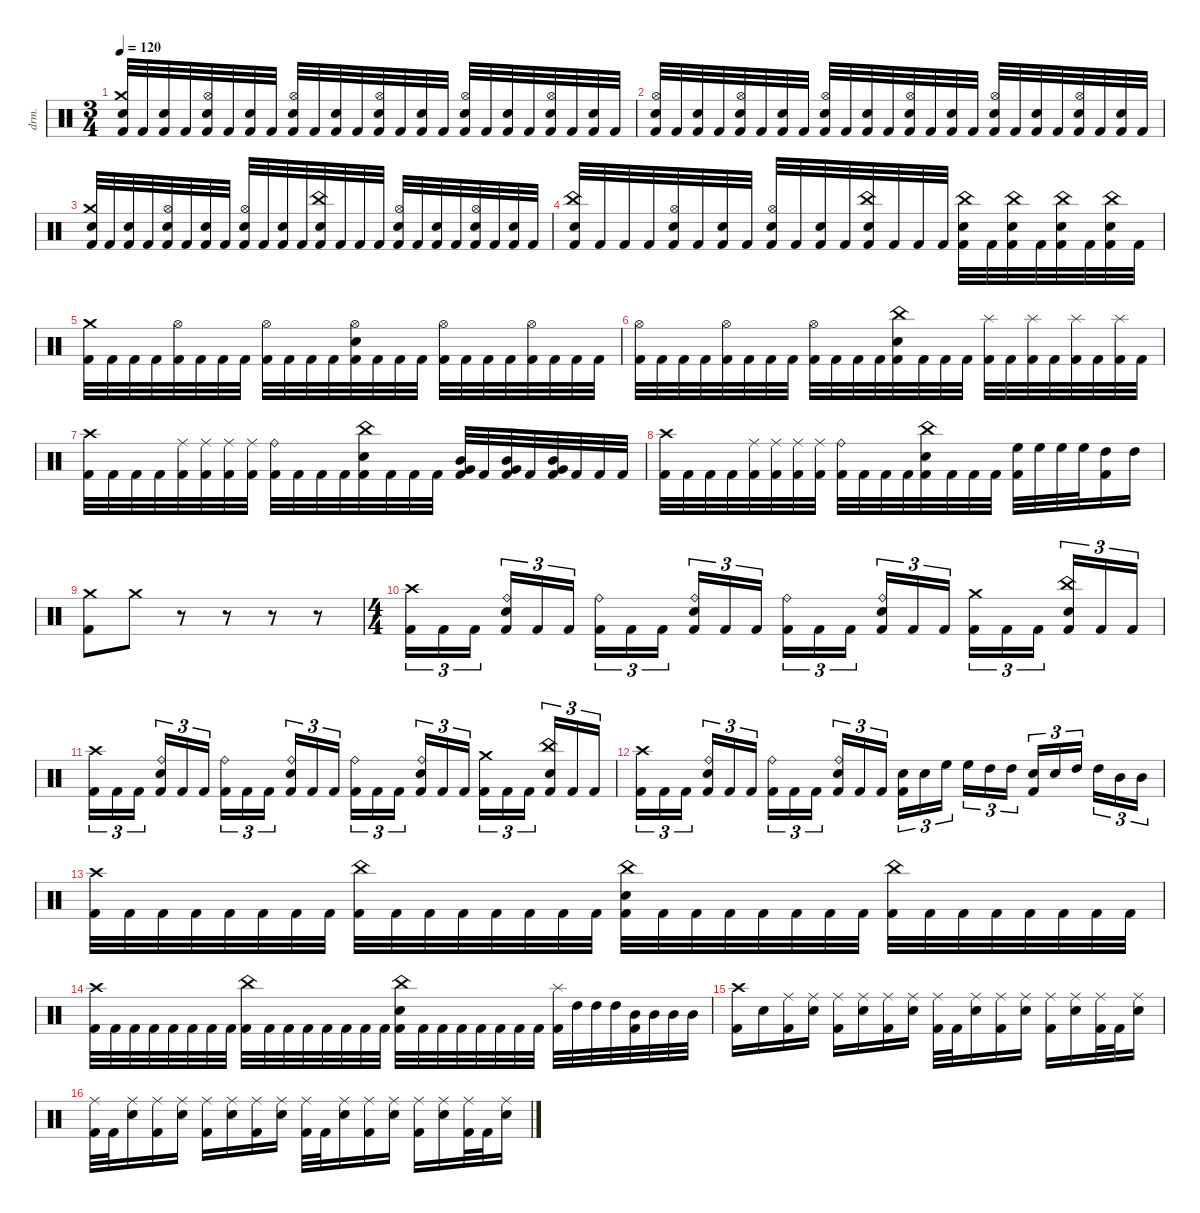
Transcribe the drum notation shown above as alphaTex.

\defaultSystemsLayout 4
\hideDynamics
\bracketExtendMode nobrackets
\otherSystemsTrackNameOrientation horizontal
\track ("Percussion" "drm.") {instrument percussion}
\staff {score}
\articulation defaults
\ts (3 4)
\tempo 120
\clef neutral
\ks c
("Kick (hit) 2" "Snare (hit) 2" "Crash medium (hit)").32{dy fff beam Up} "Kick (hit) 2".32{beam Up} ("Kick (hit) 2" "Snare (hit) 2").32{beam Up} "Kick (hit) 2".32{beam Up} ("Kick (hit) 2" "Snare (hit) 2" "Hi-Hat (open)").32{beam Up} "Kick (hit) 2".32{beam Up} ("Kick (hit) 2" "Snare (hit) 2").32{beam Up} "Kick (hit) 2".32{beam Up} ("Kick (hit) 2" "Snare (hit) 2" "Hi-Hat (open)").32{beam Up} "Kick (hit) 2".32{beam Up} ("Kick (hit) 2" "Snare (hit) 2").32{beam Up} "Kick (hit) 2".32{beam Up} ("Kick (hit) 2" "Snare (hit) 2" "Hi-Hat (open)").32{beam Up} "Kick (hit) 2".32{beam Up} ("Kick (hit) 2" "Snare (hit) 2").32{beam Up} "Kick (hit) 2".32{beam Up} ("Kick (hit) 2" "Snare (hit) 2" "Hi-Hat (open)").32{beam Up} "Kick (hit) 2".32{beam Up} ("Kick (hit) 2" "Snare (hit) 2").32{beam Up} "Kick (hit) 2".32{beam Up} ("Kick (hit) 2" "Snare (hit) 2" "Hi-Hat (open)").32{beam Up} "Kick (hit) 2".32{beam Up} ("Kick (hit) 2" "Snare (hit) 2").32{beam Up} "Kick (hit) 2".32{beam Up} |
("Kick (hit) 2" "Snare (hit) 2" "Hi-Hat (open)").32{beam Up} "Kick (hit) 2".32{beam Up} ("Kick (hit) 2" "Snare (hit) 2").32{beam Up} "Kick (hit) 2".32{beam Up} ("Kick (hit) 2" "Snare (hit) 2" "Hi-Hat (open)").32{beam Up} "Kick (hit) 2".32{beam Up} ("Kick (hit) 2" "Snare (hit) 2").32{beam Up} "Kick (hit) 2".32{beam Up} ("Kick (hit) 2" "Snare (hit) 2" "Hi-Hat (open)").32{beam Up} "Kick (hit) 2".32{beam Up} ("Kick (hit) 2" "Snare (hit) 2").32{beam Up} "Kick (hit) 2".32{beam Up} ("Kick (hit) 2" "Snare (hit) 2" "Hi-Hat (open)").32{beam Up} "Kick (hit) 2".32{beam Up} ("Kick (hit) 2" "Snare (hit) 2").32{beam Up} "Kick (hit) 2".32{beam Up} ("Kick (hit) 2" "Snare (hit) 2" "Hi-Hat (open)").32{beam Up} "Kick (hit) 2".32{beam Up} ("Kick (hit) 2" "Snare (hit) 2").32{beam Up} "Kick (hit) 2".32{beam Up} ("Kick (hit) 2" "Snare (hit) 2" "Hi-Hat (open)").32{beam Up} "Kick (hit) 2".32{beam Up} ("Kick (hit) 2" "Snare (hit) 2").32{beam Up} "Kick (hit) 2".32{beam Up} |
("Kick (hit) 2" "Snare (hit) 2" "Crash medium (hit)").32{beam Up} "Kick (hit) 2".32{beam Up} ("Kick (hit) 2" "Snare (hit) 2").32{beam Up} "Kick (hit) 2".32{beam Up} ("Kick (hit) 2" "Snare (hit) 2" "Hi-Hat (open)").32{beam Up} "Kick (hit) 2".32{beam Up} ("Kick (hit) 2" "Snare (hit) 2").32{beam Up} "Kick (hit) 2".32{beam Up} ("Kick (hit) 2" "Snare (hit) 2" "Hi-Hat (open)").32{beam Up} "Kick (hit) 2".32{beam Up} ("Kick (hit) 2" "Snare (hit) 2").32{beam Up} "Kick (hit) 2".32{beam Up} ("Kick (hit) 2" "Snare (hit) 2" "China (hit)").32{beam Up} "Kick (hit) 2".32{beam Up} "Kick (hit) 2".32{beam Up} "Kick (hit) 2".32{beam Up} ("Kick (hit) 2" "Snare (hit) 2" "Hi-Hat (open)").32{beam Up} "Kick (hit) 2".32{beam Up} ("Kick (hit) 2" "Snare (hit) 2").32{beam Up} "Kick (hit) 2".32{beam Up} ("Kick (hit) 2" "Snare (hit) 2" "Hi-Hat (open)").32{beam Up} "Kick (hit) 2".32{beam Up} ("Kick (hit) 2" "Snare (hit) 2").32{beam Up} "Kick (hit) 2".32{beam Up} |
("Kick (hit) 2" "Snare (hit) 2" "China (hit)").32{beam Up} "Kick (hit) 2".32{beam Up} "Kick (hit) 2".32{beam Up} "Kick (hit) 2".32{beam Up} ("Kick (hit) 2" "Snare (hit) 2" "Hi-Hat (open)").32{beam Up} "Kick (hit) 2".32{beam Up} ("Kick (hit) 2" "Snare (hit) 2").32{beam Up} "Kick (hit) 2".32{beam Up} ("Kick (hit) 2" "Snare (hit) 2" "Hi-Hat (open)").32{beam Up} "Kick (hit) 2".32{beam Up} ("Kick (hit) 2" "Snare (hit) 2").32{beam Up} "Kick (hit) 2".32{beam Up} ("Kick (hit) 2" "Snare (hit) 2" "China (hit)").32{beam Up} "Kick (hit) 2".32{beam Up} "Kick (hit) 2".32{beam Up} "Kick (hit) 2".32{beam Up} ("Kick (hit) 2" "Snare (hit) 2" "China (hit)").32{beam Down} "Kick (hit) 2".32{beam Down} ("Kick (hit) 2" "Snare (hit) 2" "China (hit)").32{beam Down} "Kick (hit) 2".32{beam Down} ("Kick (hit) 2" "Snare (hit) 2" "China (hit)").32{beam Down} "Kick (hit) 2".32{beam Down} ("Kick (hit) 2" "Snare (hit) 2" "China (hit)").32{beam Down} "Kick (hit) 2".32{beam Down} |
("Kick (hit) 2" "Crash medium (hit)").32{beam Down} "Kick (hit) 2".32{beam Down} "Kick (hit) 2".32{beam Down} "Kick (hit) 2".32{beam Down} ("Kick (hit) 2" "Hi-Hat (open)").32{beam Down} "Kick (hit) 2".32{beam Down} "Kick (hit) 2".32{beam Down} "Kick (hit) 2".32{beam Down} ("Kick (hit) 2" "Hi-Hat (open)").32{beam Down} "Kick (hit) 2".32{beam Down} "Kick (hit) 2".32{beam Down} "Kick (hit) 2".32{beam Down} ("Kick (hit) 2" "Snare (hit) 2" "Hi-Hat (open)").32{beam Down} "Kick (hit) 2".32{beam Down} "Kick (hit) 2".32{beam Down} "Kick (hit) 2".32{beam Down} ("Kick (hit) 2" "Hi-Hat (open)").32{beam Down} "Kick (hit) 2".32{beam Down} "Kick (hit) 2".32{beam Down} "Kick (hit) 2".32{beam Down} ("Kick (hit) 2" "Hi-Hat (open)").32{beam Down} "Kick (hit) 2".32{beam Down} "Kick (hit) 2".32{beam Down} "Kick (hit) 2".32{beam Down} |
("Kick (hit) 2" "Hi-Hat (open)").32{beam Down} "Kick (hit) 2".32{beam Down} "Kick (hit) 2".32{beam Down} "Kick (hit) 2".32{beam Down} ("Kick (hit) 2" "Hi-Hat (open)").32{beam Down} "Kick (hit) 2".32{beam Down} "Kick (hit) 2".32{beam Down} "Kick (hit) 2".32{beam Down} ("Kick (hit) 2" "Hi-Hat (open)").32{beam Down} "Kick (hit) 2".32{beam Down} "Kick (hit) 2".32{beam Down} "Kick (hit) 2".32{beam Down} ("Kick (hit) 2" "Snare (hit) 2" "China (hit)").32{beam Down} "Kick (hit) 2".32{beam Down} "Kick (hit) 2".32{beam Down} "Kick (hit) 2".32{beam Down} ("Kick (hit) 2" "Splash (hit)").32{beam Down} "Kick (hit) 2".32{beam Down} ("Kick (hit) 2" "Splash (hit)").32{beam Down} "Kick (hit) 2".32{beam Down} ("Kick (hit) 2" "Splash (hit)").32{beam Down} "Kick (hit) 2".32{beam Down} ("Kick (hit) 2" "Splash (hit)").32{beam Down} "Kick (hit) 2".32{beam Down} |
("Kick (hit) 2" "Crash high (hit)").32{beam Down} "Kick (hit) 2".32{beam Down} "Kick (hit) 2".32{beam Down} "Kick (hit) 2".32{beam Down} ("Kick (hit) 2" "Ride (middle)").32{beam Down} ("Kick (hit) 2" "Ride (middle)").32{beam Down} ("Kick (hit) 2" "Ride (middle)").32{beam Down} ("Kick (hit) 2" "Ride (middle)").32{beam Down} ("Kick (hit) 2" "Ride (bell)").32{beam Down} "Kick (hit) 2".32{beam Down} "Kick (hit) 2".32{beam Down} "Kick (hit) 2".32{beam Down} ("Kick (hit) 2" "Snare (hit) 2" "China (hit)").32{beam Down} "Kick (hit) 2".32{beam Down} "Kick (hit) 2".32{beam Down} "Kick (hit) 2".32{beam Down} ("Kick (hit) 2" "Mid Tom (hit)" "Very Low Tom (hit)").32{beam Up} "Kick (hit) 2".32{beam Up} ("Kick (hit) 2" "Mid Tom (hit)" "Very Low Tom (hit)").32{beam Up} "Kick (hit) 2".32{beam Up} ("Kick (hit) 2" "Mid Tom (hit)" "Very Low Tom (hit)").32{beam Up} "Kick (hit) 2".32{beam Up} "Kick (hit) 2".32{beam Up} "Kick (hit) 2".32{beam Up} |
("Kick (hit) 2" "Crash high (hit)").32{beam Down} "Kick (hit) 2".32{beam Down} "Kick (hit) 2".32{beam Down} "Kick (hit) 2".32{beam Down} ("Kick (hit) 2" "Ride (middle)").32{beam Down} ("Kick (hit) 2" "Ride (middle)").32{beam Down} ("Kick (hit) 2" "Ride (middle)").32{beam Down} ("Kick (hit) 2" "Ride (middle)").32{beam Down} ("Kick (hit) 2" "Ride (bell)").32{beam Down} "Kick (hit) 2".32{beam Down} "Kick (hit) 2".32{beam Down} "Kick (hit) 2".32{beam Down} ("Kick (hit) 2" "Snare (hit) 2" "China (hit)").32{beam Down} "Kick (hit) 2".32{beam Down} "Kick (hit) 2".32{beam Down} "Kick (hit) 2".32{beam Down} ("Kick (hit) 2" "High Floor Tom (hit)").32{beam Down} "High Floor Tom (hit)".32{beam Down} "High Floor Tom (hit)".32{beam Down} "High Floor Tom (hit)".32{beam Down} ("Kick (hit) 2" "High Tom (hit)").16{beam Down} "High Tom (hit)".16{beam Down} |
("Kick (hit) 2" "Crash medium (hit)").8{beam Down} "Crash medium (hit)".8{dy ppp beam Down} r.8{beam Down} r.8{beam Down} r.8{beam Down} r.8{beam Down} |
\ts (4 4)
\beaming (8 2 2 2 2)
("Kick (hit) 2" "Crash high (hit)").16{tu (3 2) dy fff beam Down} "Kick (hit) 2".16{tu (3 2) beam Down} "Kick (hit) 2".16{tu (3 2) beam Down} ("Kick (hit) 2" "Snare (hit) 2" "Ride (bell)").16{tu (3 2) beam Up} "Kick (hit) 2".16{tu (3 2) beam Up} "Kick (hit) 2".16{tu (3 2) beam Up} ("Kick (hit) 2" "Ride (bell)").16{tu (3 2) beam Down} "Kick (hit) 2".16{tu (3 2) beam Down} "Kick (hit) 2".16{tu (3 2) beam Down} ("Kick (hit) 2" "Snare (hit) 2" "Ride (bell)").16{tu (3 2) beam Up} "Kick (hit) 2".16{tu (3 2) beam Up} "Kick (hit) 2".16{tu (3 2) beam Up} ("Kick (hit) 2" "Ride (bell)").16{tu (3 2) beam Down} "Kick (hit) 2".16{tu (3 2) beam Down} "Kick (hit) 2".16{tu (3 2) beam Down} ("Kick (hit) 2" "Snare (hit) 2" "Ride (bell)").16{tu (3 2) beam Up} "Kick (hit) 2".16{tu (3 2) beam Up} "Kick (hit) 2".16{tu (3 2) beam Up} ("Kick (hit) 2" "Crash medium (hit)").16{tu (3 2) beam Down} "Kick (hit) 2".16{tu (3 2) beam Down} "Kick (hit) 2".16{tu (3 2) beam Down} ("Kick (hit) 2" "Snare (hit) 2" "China (hit)").16{tu (3 2) beam Up} "Kick (hit) 2".16{tu (3 2) beam Up} "Kick (hit) 2".16{tu (3 2) beam Up} |
("Kick (hit) 2" "Crash high (hit)").16{tu (3 2) beam Down} "Kick (hit) 2".16{tu (3 2) beam Down} "Kick (hit) 2".16{tu (3 2) beam Down} ("Kick (hit) 2" "Snare (hit) 2" "Ride (bell)").16{tu (3 2) beam Up} "Kick (hit) 2".16{tu (3 2) beam Up} "Kick (hit) 2".16{tu (3 2) beam Up} ("Kick (hit) 2" "Ride (bell)").16{tu (3 2) beam Down} "Kick (hit) 2".16{tu (3 2) beam Down} "Kick (hit) 2".16{tu (3 2) beam Down} ("Kick (hit) 2" "Snare (hit) 2" "Ride (bell)").16{tu (3 2) beam Up} "Kick (hit) 2".16{tu (3 2) beam Up} "Kick (hit) 2".16{tu (3 2) beam Up} ("Kick (hit) 2" "Ride (bell)").16{tu (3 2) beam Down} "Kick (hit) 2".16{tu (3 2) beam Down} "Kick (hit) 2".16{tu (3 2) beam Down} ("Kick (hit) 2" "Snare (hit) 2" "Ride (bell)").16{tu (3 2) beam Up} "Kick (hit) 2".16{tu (3 2) beam Up} "Kick (hit) 2".16{tu (3 2) beam Up} ("Kick (hit) 2" "Crash medium (hit)").16{tu (3 2) beam Down} "Kick (hit) 2".16{tu (3 2) beam Down} "Kick (hit) 2".16{tu (3 2) beam Down} ("Kick (hit) 2" "Snare (hit) 2" "China (hit)").16{tu (3 2) beam Up} "Kick (hit) 2".16{tu (3 2) beam Up} "Kick (hit) 2".16{tu (3 2) beam Up} |
("Kick (hit) 2" "Crash high (hit)").16{tu (3 2) beam Down} "Kick (hit) 2".16{tu (3 2) beam Down} "Kick (hit) 2".16{tu (3 2) beam Down} ("Kick (hit) 2" "Snare (hit) 2" "Ride (bell)").16{tu (3 2) beam Up} "Kick (hit) 2".16{tu (3 2) beam Up} "Kick (hit) 2".16{tu (3 2) beam Up} ("Kick (hit) 2" "Ride (bell)").16{tu (3 2) beam Down} "Kick (hit) 2".16{tu (3 2) beam Down} "Kick (hit) 2".16{tu (3 2) beam Down} ("Kick (hit) 2" "Snare (hit) 2" "Ride (bell)").16{tu (3 2) beam Up} "Kick (hit) 2".16{tu (3 2) beam Up} "Kick (hit) 2".16{tu (3 2) beam Up} ("Kick (hit) 2" "Snare (hit) 2").16{tu (3 2) beam Down} "Snare (hit) 2".16{tu (3 2) beam Down} "High Floor Tom (hit)".16{tu (3 2) beam Down} "High Floor Tom (hit)".16{tu (3 2) beam Down} "High Tom (hit)".16{tu (3 2) beam Down} "High Tom (hit)".16{tu (3 2) beam Down} ("Kick (hit) 2" "Snare (hit) 2").16{tu (3 2) beam Up} "Snare (hit) 2".16{tu (3 2) beam Up} "High Tom (hit)".16{tu (3 2) beam Up} "High Tom (hit)".16{tu (3 2) beam Down} "Mid Tom (hit)".16{tu (3 2) beam Down} "Mid Tom (hit)".16{tu (3 2) beam Down} |
("Kick (hit) 2" "Crash high (hit)").32{beam Down} "Kick (hit) 2".32{beam Down} "Kick (hit) 2".32{beam Down} "Kick (hit) 2".32{beam Down} "Kick (hit) 2".32{beam Down} "Kick (hit) 2".32{beam Down} "Kick (hit) 2".32{beam Down} "Kick (hit) 2".32{beam Down} ("Kick (hit) 2" "China (hit)").32{beam Down} "Kick (hit) 2".32{beam Down} "Kick (hit) 2".32{beam Down} "Kick (hit) 2".32{beam Down} "Kick (hit) 2".32{beam Down} "Kick (hit) 2".32{beam Down} "Kick (hit) 2".32{beam Down} "Kick (hit) 2".32{beam Down} ("Kick (hit) 2" "Snare (hit) 2" "China (hit)").32{beam Down} "Kick (hit) 2".32{beam Down} "Kick (hit) 2".32{beam Down} "Kick (hit) 2".32{beam Down} "Kick (hit) 2".32{beam Down} "Kick (hit) 2".32{beam Down} "Kick (hit) 2".32{beam Down} "Kick (hit) 2".32{beam Down} ("Kick (hit) 2" "China (hit)").32{beam Down} "Kick (hit) 2".32{beam Down} "Kick (hit) 2".32{beam Down} "Kick (hit) 2".32{beam Down} "Kick (hit) 2".32{beam Down} "Kick (hit) 2".32{beam Down} "Kick (hit) 2".32{beam Down} "Kick (hit) 2".32{beam Down} |
("Kick (hit) 2" "Crash high (hit)").32{beam Down} "Kick (hit) 2".32{beam Down} "Kick (hit) 2".32{beam Down} "Kick (hit) 2".32{beam Down} "Kick (hit) 2".32{beam Down} "Kick (hit) 2".32{beam Down} "Kick (hit) 2".32{beam Down} "Kick (hit) 2".32{beam Down} ("Kick (hit) 2" "China (hit)").32{beam Down} "Kick (hit) 2".32{beam Down} "Kick (hit) 2".32{beam Down} "Kick (hit) 2".32{beam Down} "Kick (hit) 2".32{beam Down} "Kick (hit) 2".32{beam Down} "Kick (hit) 2".32{beam Down} "Kick (hit) 2".32{beam Down} ("Kick (hit) 2" "Snare (hit) 2" "China (hit)").32{beam Down} "Kick (hit) 2".32{beam Down} "Kick (hit) 2".32{beam Down} "Kick (hit) 2".32{beam Down} "Kick (hit) 2".32{beam Down} "Kick (hit) 2".32{beam Down} "Kick (hit) 2".32{beam Down} "Kick (hit) 2".32{beam Down} ("Kick (hit) 2" "Splash (hit)").32{beam Down} "High Tom (hit)".32{beam Down} "High Tom (hit)".32{beam Down} "High Tom (hit)".32{beam Down} ("Kick (hit) 2" "Mid Tom (hit)").32{beam Down} "Mid Tom (hit)".32{beam Down} "Mid Tom (hit)".32{beam Down} "Mid Tom (hit)".32{beam Down} |
("Kick (hit) 2" "Crash high (hit)").16{beam Down} "Snare (hit) 2".16{beam Down} ("Kick (hit) 2" "Ride (middle)").16{beam Down} ("Snare (hit) 2" "Ride (middle)").16{beam Down} ("Kick (hit) 2" "Ride (middle)").16{beam Down} ("Snare (hit) 2" "Ride (middle)").16{beam Down} ("Kick (hit) 2" "Ride (middle)").16{beam Down} ("Snare (hit) 2" "Ride (middle)").16{beam Down} ("Kick (hit) 2" "Ride (middle)").32{beam Down} "Kick (hit) 2".32{beam Down} ("Snare (hit) 2" "Ride (middle)").16{beam Down} ("Kick (hit) 2" "Ride (middle)").16{beam Down} ("Snare (hit) 2" "Ride (middle)").16{beam Down} ("Kick (hit) 2" "Ride (middle)").16{beam Down} ("Snare (hit) 2" "Ride (middle)").16{beam Down} ("Kick (hit) 2" "Ride (middle)").32{beam Down} "Kick (hit) 2".32{beam Down} ("Snare (hit) 2" "Ride (middle)").16{beam Down} |
("Kick (hit) 2" "Ride (middle)").32{beam Down} "Kick (hit) 2".32{beam Down} ("Snare (hit) 2" "Ride (middle)").16{beam Down} ("Kick (hit) 2" "Ride (middle)").16{beam Down} ("Snare (hit) 2" "Ride (middle)").16{beam Down} ("Kick (hit) 2" "Ride (middle)").16{beam Down} ("Snare (hit) 2" "Ride (middle)").16{beam Down} ("Kick (hit) 2" "Ride (middle)").16{beam Down} ("Snare (hit) 2" "Ride (middle)").16{beam Down} ("Kick (hit) 2" "Ride (middle)").32{beam Down} "Kick (hit) 2".32{beam Down} ("Snare (hit) 2" "Ride (middle)").16{beam Down} ("Kick (hit) 2" "Ride (middle)").16{beam Down} ("Snare (hit) 2" "Ride (middle)").16{beam Down} ("Kick (hit) 2" "Ride (middle)").16{beam Down} ("Snare (hit) 2" "Ride (middle)").16{beam Down} ("Kick (hit) 2" "Ride (middle)").32{beam Down} "Kick (hit) 2".32{beam Down} ("Snare (hit) 2" "Ride (middle)").16{beam Down}
